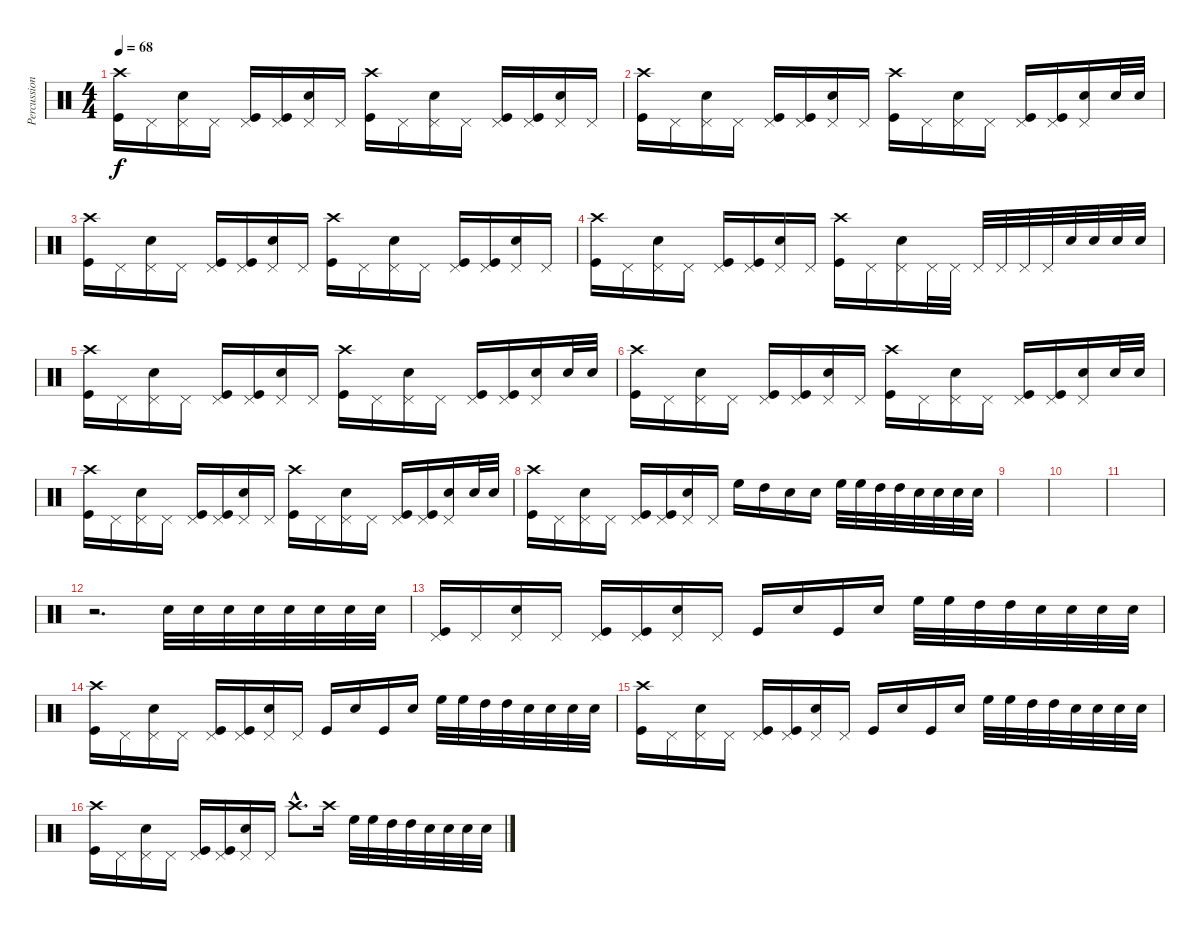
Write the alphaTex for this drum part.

\track ("Percussion" "Percussion") {instrument percussion}
\staff {score}
\articulation defaults
\ts (4 4)
\tempo 68
\clef neutral
\ks c
("Crash high (hit)" "Kick (hit)").16{dy f} "Pedal Hi-Hat (hit)".16 ("Pedal Hi-Hat (hit)" "Electric Snare (hit)").16 "Pedal Hi-Hat (hit)".16 ("Pedal Hi-Hat (hit)" "Kick (hit)").16 ("Pedal Hi-Hat (hit)" "Kick (hit)").16 ("Pedal Hi-Hat (hit)" "Electric Snare (hit)").16 "Pedal Hi-Hat (hit)".16 ("Crash high (hit)" "Kick (hit)").16 "Pedal Hi-Hat (hit)".16 ("Pedal Hi-Hat (hit)" "Electric Snare (hit)").16 "Pedal Hi-Hat (hit)".16 ("Pedal Hi-Hat (hit)" "Kick (hit)").16 ("Pedal Hi-Hat (hit)" "Kick (hit)").16 ("Pedal Hi-Hat (hit)" "Electric Snare (hit)").16 "Pedal Hi-Hat (hit)".16 |
("Crash high (hit)" "Kick (hit)").16 "Pedal Hi-Hat (hit)".16 ("Pedal Hi-Hat (hit)" "Electric Snare (hit)").16 "Pedal Hi-Hat (hit)".16 ("Pedal Hi-Hat (hit)" "Kick (hit)").16 ("Pedal Hi-Hat (hit)" "Kick (hit)").16 ("Pedal Hi-Hat (hit)" "Electric Snare (hit)").16 "Pedal Hi-Hat (hit)".16 ("Crash high (hit)" "Kick (hit)").16 "Pedal Hi-Hat (hit)".16 ("Pedal Hi-Hat (hit)" "Electric Snare (hit)").16 "Pedal Hi-Hat (hit)".16 ("Pedal Hi-Hat (hit)" "Kick (hit)").16 ("Pedal Hi-Hat (hit)" "Kick (hit)").16 ("Pedal Hi-Hat (hit)" "Electric Snare (hit)").16 "Electric Snare (hit)".32 "Electric Snare (hit)".32 |
("Crash high (hit)" "Kick (hit)").16 "Pedal Hi-Hat (hit)".16 ("Pedal Hi-Hat (hit)" "Electric Snare (hit)").16 "Pedal Hi-Hat (hit)".16 ("Pedal Hi-Hat (hit)" "Kick (hit)").16 ("Pedal Hi-Hat (hit)" "Kick (hit)").16 ("Pedal Hi-Hat (hit)" "Electric Snare (hit)").16 "Pedal Hi-Hat (hit)".16 ("Crash high (hit)" "Kick (hit)").16 "Pedal Hi-Hat (hit)".16 ("Pedal Hi-Hat (hit)" "Electric Snare (hit)").16 "Pedal Hi-Hat (hit)".16 ("Pedal Hi-Hat (hit)" "Kick (hit)").16 ("Pedal Hi-Hat (hit)" "Kick (hit)").16 ("Pedal Hi-Hat (hit)" "Electric Snare (hit)").16 "Pedal Hi-Hat (hit)".16 |
("Crash high (hit)" "Kick (hit)").16 "Pedal Hi-Hat (hit)".16 ("Pedal Hi-Hat (hit)" "Electric Snare (hit)").16 "Pedal Hi-Hat (hit)".16 ("Pedal Hi-Hat (hit)" "Kick (hit)").16 ("Pedal Hi-Hat (hit)" "Kick (hit)").16 ("Pedal Hi-Hat (hit)" "Electric Snare (hit)").16 "Pedal Hi-Hat (hit)".16 ("Crash high (hit)" "Kick (hit)").16 "Pedal Hi-Hat (hit)".16 ("Pedal Hi-Hat (hit)" "Electric Snare (hit)").16 "Pedal Hi-Hat (hit)".32 "Pedal Hi-Hat (hit)".32 "Pedal Hi-Hat (hit)".32 "Pedal Hi-Hat (hit)".32 "Pedal Hi-Hat (hit)".32 "Pedal Hi-Hat (hit)".32 "Electric Snare (hit)".32 "Electric Snare (hit)".32 "Electric Snare (hit)".32 "Electric Snare (hit)".32 |
("Crash high (hit)" "Kick (hit)").16 "Pedal Hi-Hat (hit)".16 ("Pedal Hi-Hat (hit)" "Electric Snare (hit)").16 "Pedal Hi-Hat (hit)".16 ("Pedal Hi-Hat (hit)" "Kick (hit)").16 ("Pedal Hi-Hat (hit)" "Kick (hit)").16 ("Pedal Hi-Hat (hit)" "Electric Snare (hit)").16 "Pedal Hi-Hat (hit)".16 ("Crash high (hit)" "Kick (hit)").16 "Pedal Hi-Hat (hit)".16 ("Pedal Hi-Hat (hit)" "Electric Snare (hit)").16 "Pedal Hi-Hat (hit)".16 ("Pedal Hi-Hat (hit)" "Kick (hit)").16 ("Pedal Hi-Hat (hit)" "Kick (hit)").16 ("Pedal Hi-Hat (hit)" "Electric Snare (hit)").16 "Electric Snare (hit)".32 "Electric Snare (hit)".32 |
("Crash high (hit)" "Kick (hit)").16 "Pedal Hi-Hat (hit)".16 ("Pedal Hi-Hat (hit)" "Electric Snare (hit)").16 "Pedal Hi-Hat (hit)".16 ("Pedal Hi-Hat (hit)" "Kick (hit)").16 ("Pedal Hi-Hat (hit)" "Kick (hit)").16 ("Pedal Hi-Hat (hit)" "Electric Snare (hit)").16 "Pedal Hi-Hat (hit)".16 ("Crash high (hit)" "Kick (hit)").16 "Pedal Hi-Hat (hit)".16 ("Pedal Hi-Hat (hit)" "Electric Snare (hit)").16 "Pedal Hi-Hat (hit)".16 ("Pedal Hi-Hat (hit)" "Kick (hit)").16 ("Pedal Hi-Hat (hit)" "Kick (hit)").16 ("Pedal Hi-Hat (hit)" "Electric Snare (hit)").16 "Electric Snare (hit)".32 "Electric Snare (hit)".32 |
("Crash high (hit)" "Kick (hit)").16 "Pedal Hi-Hat (hit)".16 ("Pedal Hi-Hat (hit)" "Electric Snare (hit)").16 "Pedal Hi-Hat (hit)".16 ("Pedal Hi-Hat (hit)" "Kick (hit)").16 ("Pedal Hi-Hat (hit)" "Kick (hit)").16 ("Pedal Hi-Hat (hit)" "Electric Snare (hit)").16 "Pedal Hi-Hat (hit)".16 ("Crash high (hit)" "Kick (hit)").16 "Pedal Hi-Hat (hit)".16 ("Pedal Hi-Hat (hit)" "Electric Snare (hit)").16 "Pedal Hi-Hat (hit)".16 ("Pedal Hi-Hat (hit)" "Kick (hit)").16 ("Pedal Hi-Hat (hit)" "Kick (hit)").16 ("Pedal Hi-Hat (hit)" "Electric Snare (hit)").16 "Electric Snare (hit)".32 "Electric Snare (hit)".32 |
("Crash high (hit)" "Kick (hit)").16 "Pedal Hi-Hat (hit)".16 ("Pedal Hi-Hat (hit)" "Electric Snare (hit)").16 "Pedal Hi-Hat (hit)".16 ("Pedal Hi-Hat (hit)" "Kick (hit)").16 ("Pedal Hi-Hat (hit)" "Kick (hit)").16 ("Pedal Hi-Hat (hit)" "Electric Snare (hit)").16 "Pedal Hi-Hat (hit)".16 "High Floor Tom (hit)".16 "High Tom (hit)".16 "Electric Snare (hit)".16 "Electric Snare (hit)".16 "High Floor Tom (hit)".32 "High Floor Tom (hit)".32 "High Tom (hit)".32 "High Tom (hit)".32 "Electric Snare (hit)".32 "Electric Snare (hit)".32 "Electric Snare (hit)".32 "Electric Snare (hit)".32 |
|
|
|
r.2{d} "Electric Snare (hit)".32 "Electric Snare (hit)".32 "Electric Snare (hit)".32 "Electric Snare (hit)".32 "Electric Snare (hit)".32 "Electric Snare (hit)".32 "Electric Snare (hit)".32 "Electric Snare (hit)".32 |
("Pedal Hi-Hat (hit)" "Kick (hit)").16 "Pedal Hi-Hat (hit)".16 ("Pedal Hi-Hat (hit)" "Electric Snare (hit)").16 "Pedal Hi-Hat (hit)".16 ("Pedal Hi-Hat (hit)" "Kick (hit)").16 ("Pedal Hi-Hat (hit)" "Kick (hit)").16 ("Pedal Hi-Hat (hit)" "Electric Snare (hit)").16 "Pedal Hi-Hat (hit)".16 "Kick (hit)".16 "Electric Snare (hit)".16 "Kick (hit)".16 "Electric Snare (hit)".16 "High Floor Tom (hit)".32 "High Floor Tom (hit)".32 "High Tom (hit)".32 "High Tom (hit)".32 "Electric Snare (hit)".32 "Electric Snare (hit)".32 "Electric Snare (hit)".32 "Electric Snare (hit)".32 |
("Crash high (hit)" "Kick (hit)").16 "Pedal Hi-Hat (hit)".16 ("Pedal Hi-Hat (hit)" "Electric Snare (hit)").16 "Pedal Hi-Hat (hit)".16 ("Pedal Hi-Hat (hit)" "Kick (hit)").16 ("Pedal Hi-Hat (hit)" "Kick (hit)").16 ("Pedal Hi-Hat (hit)" "Electric Snare (hit)").16 "Pedal Hi-Hat (hit)".16 "Kick (hit)".16 "Electric Snare (hit)".16 "Kick (hit)".16 "Electric Snare (hit)".16 "High Floor Tom (hit)".32 "High Floor Tom (hit)".32 "High Tom (hit)".32 "High Tom (hit)".32 "Electric Snare (hit)".32 "Electric Snare (hit)".32 "Electric Snare (hit)".32 "Electric Snare (hit)".32 |
("Crash high (hit)" "Kick (hit)").16 "Pedal Hi-Hat (hit)".16 ("Pedal Hi-Hat (hit)" "Electric Snare (hit)").16 "Pedal Hi-Hat (hit)".16 ("Pedal Hi-Hat (hit)" "Kick (hit)").16 ("Pedal Hi-Hat (hit)" "Kick (hit)").16 ("Pedal Hi-Hat (hit)" "Electric Snare (hit)").16 "Pedal Hi-Hat (hit)".16 "Kick (hit)".16 "Electric Snare (hit)".16 "Kick (hit)".16 "Electric Snare (hit)".16 "High Floor Tom (hit)".32 "High Floor Tom (hit)".32 "High Tom (hit)".32 "High Tom (hit)".32 "Electric Snare (hit)".32 "Electric Snare (hit)".32 "Electric Snare (hit)".32 "Electric Snare (hit)".32 |
("Crash high (hit)" "Kick (hit)").16 "Pedal Hi-Hat (hit)".16 ("Pedal Hi-Hat (hit)" "Electric Snare (hit)").16 "Pedal Hi-Hat (hit)".16 ("Pedal Hi-Hat (hit)" "Kick (hit)").16 ("Pedal Hi-Hat (hit)" "Kick (hit)").16 ("Pedal Hi-Hat (hit)" "Electric Snare (hit)").16 "Pedal Hi-Hat (hit)".16 "Crash high (hit)"{hac}.8{d} "Crash high (hit)".16 "High Floor Tom (hit)".32 "High Floor Tom (hit)".32 "High Tom (hit)".32 "High Tom (hit)".32 "Electric Snare (hit)".32 "Electric Snare (hit)".32 "Electric Snare (hit)".32 "Electric Snare (hit)".32
